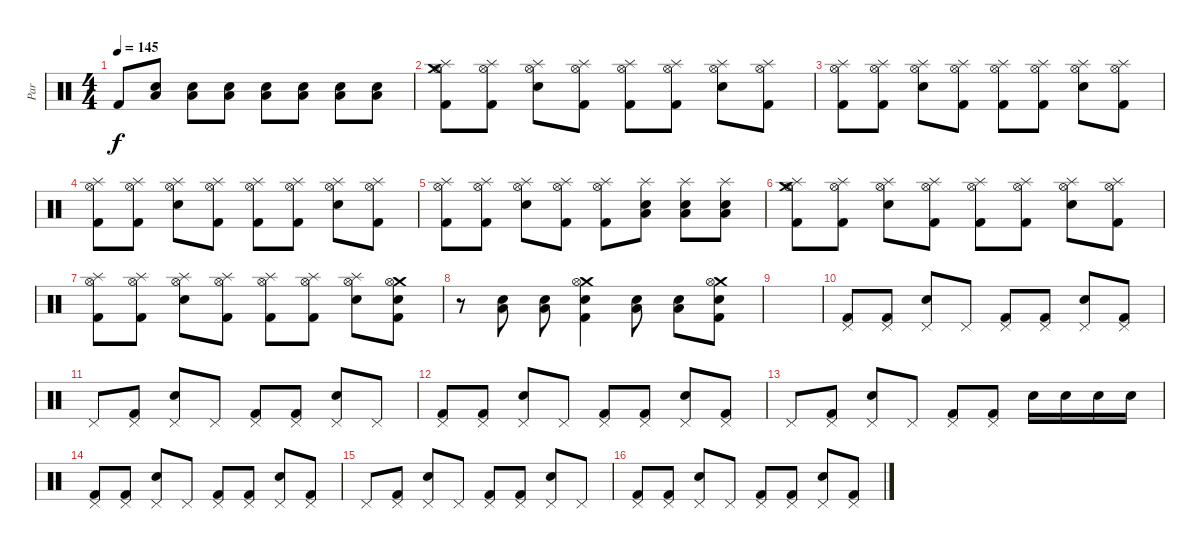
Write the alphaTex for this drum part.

\track ("Par" "Par") {instrument percussion}
\staff {score}
\articulation defaults
\ts (4 4)
\tempo 145
\clef neutral
\ks c "Kick (hit) 2".8{dy f}
("Low Floor Tom (hit)" "Snare (hit) 2").8 ("Low Floor Tom (hit)" "Snare (hit) 2").8 ("Low Floor Tom (hit)" "Snare (hit) 2").8 ("Low Floor Tom (hit)" "Snare (hit) 2").8 ("Low Floor Tom (hit)" "Snare (hit) 2").8 ("Low Floor Tom (hit)" "Snare (hit) 2").8 ("Low Floor Tom (hit)" "Snare (hit) 2").8 |
("Splash (hit)" "Crash medium (hit)" "Hi-Hat (open)" "Kick (hit) 2").8 ("Splash (hit)" "Hi-Hat (open)" "Kick (hit) 2").8 ("Splash (hit)" "Hi-Hat (open)" "Snare (hit) 2").8 ("Splash (hit)" "Hi-Hat (open)" "Kick (hit) 2").8 ("Splash (hit)" "Hi-Hat (open)" "Kick (hit) 2").8 ("Splash (hit)" "Hi-Hat (open)" "Kick (hit) 2").8 ("Splash (hit)" "Hi-Hat (open)" "Snare (hit) 2").8 ("Splash (hit)" "Hi-Hat (open)" "Kick (hit) 2").8 |
("Splash (hit)" "Hi-Hat (open)" "Kick (hit) 2").8 ("Splash (hit)" "Hi-Hat (open)" "Kick (hit) 2").8 ("Splash (hit)" "Hi-Hat (open)" "Snare (hit) 2").8 ("Splash (hit)" "Hi-Hat (open)" "Kick (hit) 2").8 ("Splash (hit)" "Hi-Hat (open)" "Kick (hit) 2").8 ("Splash (hit)" "Hi-Hat (open)" "Kick (hit) 2").8 ("Splash (hit)" "Hi-Hat (open)" "Snare (hit) 2").8 ("Splash (hit)" "Hi-Hat (open)" "Kick (hit) 2").8 |
("Splash (hit)" "Hi-Hat (open)" "Kick (hit) 2").8 ("Splash (hit)" "Hi-Hat (open)" "Kick (hit) 2").8 ("Splash (hit)" "Hi-Hat (open)" "Snare (hit) 2").8 ("Splash (hit)" "Hi-Hat (open)" "Kick (hit) 2").8 ("Splash (hit)" "Hi-Hat (open)" "Kick (hit) 2").8 ("Splash (hit)" "Hi-Hat (open)" "Kick (hit) 2").8 ("Splash (hit)" "Hi-Hat (open)" "Snare (hit) 2").8 ("Splash (hit)" "Hi-Hat (open)" "Kick (hit) 2").8 |
("Splash (hit)" "Hi-Hat (open)" "Kick (hit) 2").8 ("Splash (hit)" "Hi-Hat (open)" "Kick (hit) 2").8 ("Splash (hit)" "Hi-Hat (open)" "Snare (hit) 2").8 ("Splash (hit)" "Hi-Hat (open)" "Kick (hit) 2").8 ("Splash (hit)" "Hi-Hat (open)" "Kick (hit) 2").8 ("Splash (hit)" "Low Floor Tom (hit)" "Snare (hit) 2").8 ("Splash (hit)" "Low Floor Tom (hit)" "Snare (hit) 2").8 ("Splash (hit)" "Low Floor Tom (hit)" "Snare (hit) 2").8 |
("Splash (hit)" "Crash medium (hit)" "Hi-Hat (open)" "Kick (hit) 2").8 ("Splash (hit)" "Hi-Hat (open)" "Kick (hit) 2").8 ("Splash (hit)" "Hi-Hat (open)" "Snare (hit) 2").8 ("Splash (hit)" "Hi-Hat (open)" "Kick (hit) 2").8 ("Splash (hit)" "Hi-Hat (open)" "Kick (hit) 2").8 ("Splash (hit)" "Hi-Hat (open)" "Kick (hit) 2").8 ("Splash (hit)" "Hi-Hat (open)" "Snare (hit) 2").8 ("Splash (hit)" "Hi-Hat (open)" "Kick (hit) 2").8 |
("Splash (hit)" "Hi-Hat (open)" "Kick (hit) 2").8 ("Splash (hit)" "Hi-Hat (open)" "Kick (hit) 2").8 ("Splash (hit)" "Hi-Hat (open)" "Snare (hit) 2").8 ("Splash (hit)" "Hi-Hat (open)" "Kick (hit) 2").8 ("Splash (hit)" "Hi-Hat (open)" "Kick (hit) 2").8 ("Splash (hit)" "Hi-Hat (open)" "Kick (hit) 2").8 ("Splash (hit)" "Hi-Hat (open)" "Snare (hit) 2").8 ("Crash medium (hit)" "Hi-Hat (open)" "Snare (hit) 2" "Kick (hit) 2").8 |
r.8 ("Low Floor Tom (hit)" "Snare (hit) 2").8 ("Low Floor Tom (hit)" "Snare (hit) 2").8 ("Crash medium (hit)" "Hi-Hat (open)" "Snare (hit) 2" "Kick (hit) 2").4 ("Low Floor Tom (hit)" "Snare (hit) 2").8 ("Low Floor Tom (hit)" "Snare (hit) 2").8 ("Crash medium (hit)" "Hi-Hat (open)" "Snare (hit) 2" "Kick (hit) 2").8 |
|
("Pedal Hi-Hat (hit)" "Kick (hit) 2").8 ("Pedal Hi-Hat (hit)" "Kick (hit) 2").8 ("Pedal Hi-Hat (hit)" "Snare (hit) 2").8 "Pedal Hi-Hat (hit)".8 ("Pedal Hi-Hat (hit)" "Kick (hit) 2").8 ("Pedal Hi-Hat (hit)" "Kick (hit) 2").8 ("Pedal Hi-Hat (hit)" "Snare (hit) 2").8 ("Pedal Hi-Hat (hit)" "Kick (hit) 2").8 |
"Pedal Hi-Hat (hit)".8 ("Pedal Hi-Hat (hit)" "Kick (hit) 2").8 ("Pedal Hi-Hat (hit)" "Snare (hit) 2").8 "Pedal Hi-Hat (hit)".8 ("Pedal Hi-Hat (hit)" "Kick (hit) 2").8 ("Pedal Hi-Hat (hit)" "Kick (hit) 2").8 ("Pedal Hi-Hat (hit)" "Snare (hit) 2").8 "Pedal Hi-Hat (hit)".8 |
("Pedal Hi-Hat (hit)" "Kick (hit) 2").8 ("Pedal Hi-Hat (hit)" "Kick (hit) 2").8 ("Pedal Hi-Hat (hit)" "Snare (hit) 2").8 "Pedal Hi-Hat (hit)".8 ("Pedal Hi-Hat (hit)" "Kick (hit) 2").8 ("Pedal Hi-Hat (hit)" "Kick (hit) 2").8 ("Pedal Hi-Hat (hit)" "Snare (hit) 2").8 ("Pedal Hi-Hat (hit)" "Kick (hit) 2").8 |
"Pedal Hi-Hat (hit)".8 ("Pedal Hi-Hat (hit)" "Kick (hit) 2").8 ("Pedal Hi-Hat (hit)" "Snare (hit) 2").8 "Pedal Hi-Hat (hit)".8 ("Pedal Hi-Hat (hit)" "Kick (hit) 2").8 ("Pedal Hi-Hat (hit)" "Kick (hit) 2").8 "Snare (hit) 2".16 "Snare (hit) 2".16 "Snare (hit) 2".16 "Snare (hit) 2".16 |
("Pedal Hi-Hat (hit)" "Kick (hit) 2").8 ("Pedal Hi-Hat (hit)" "Kick (hit) 2").8 ("Pedal Hi-Hat (hit)" "Snare (hit) 2").8 "Pedal Hi-Hat (hit)".8 ("Pedal Hi-Hat (hit)" "Kick (hit) 2").8 ("Pedal Hi-Hat (hit)" "Kick (hit) 2").8 ("Pedal Hi-Hat (hit)" "Snare (hit) 2").8 ("Pedal Hi-Hat (hit)" "Kick (hit) 2").8 |
"Pedal Hi-Hat (hit)".8 ("Pedal Hi-Hat (hit)" "Kick (hit) 2").8 ("Pedal Hi-Hat (hit)" "Snare (hit) 2").8 "Pedal Hi-Hat (hit)".8 ("Pedal Hi-Hat (hit)" "Kick (hit) 2").8 ("Pedal Hi-Hat (hit)" "Kick (hit) 2").8 ("Pedal Hi-Hat (hit)" "Snare (hit) 2").8 "Pedal Hi-Hat (hit)".8 |
("Pedal Hi-Hat (hit)" "Kick (hit) 2").8 ("Pedal Hi-Hat (hit)" "Kick (hit) 2").8 ("Pedal Hi-Hat (hit)" "Snare (hit) 2").8 "Pedal Hi-Hat (hit)".8 ("Pedal Hi-Hat (hit)" "Kick (hit) 2").8 ("Pedal Hi-Hat (hit)" "Kick (hit) 2").8 ("Pedal Hi-Hat (hit)" "Snare (hit) 2").8 ("Pedal Hi-Hat (hit)" "Kick (hit) 2").8
